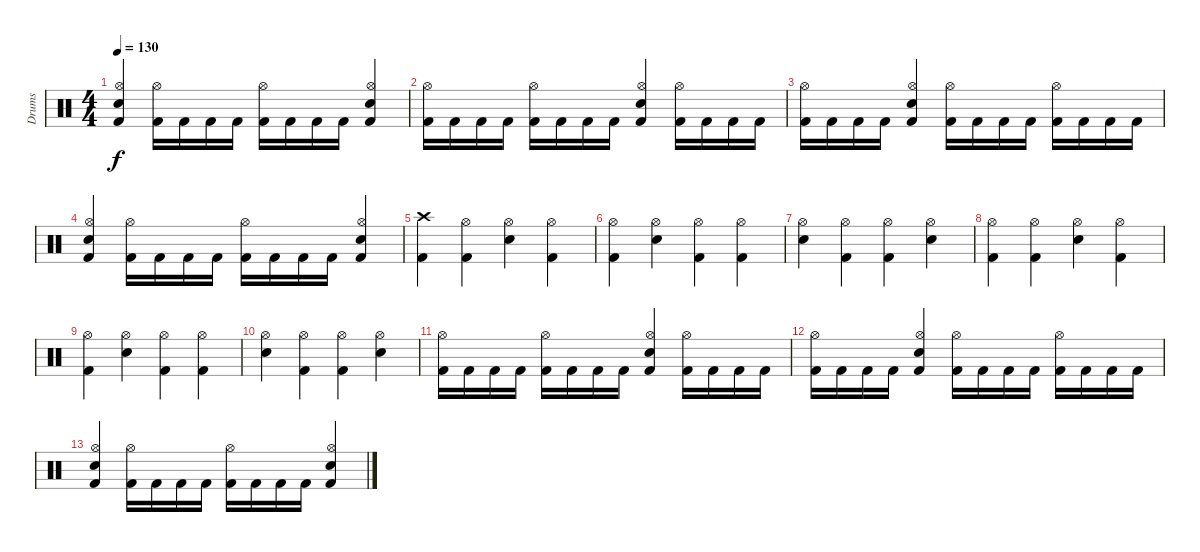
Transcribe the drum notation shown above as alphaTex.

\track ("Drums" "Drums") {instrument percussion}
\staff {score}
\articulation defaults
\ts (4 4)
\tempo 130
\clef neutral
\ks c
("Kick (hit) 2" "Hi-Hat (open)" "Snare (hit) 2").4{dy f} ("Hi-Hat (open)" "Kick (hit) 2").16 "Kick (hit) 2".16 "Kick (hit) 2".16 "Kick (hit) 2".16 ("Hi-Hat (open)" "Kick (hit) 2").16 "Kick (hit) 2".16 "Kick (hit) 2".16 "Kick (hit) 2".16 ("Hi-Hat (open)" "Kick (hit) 2" "Snare (hit) 2").4 |
("Hi-Hat (open)" "Kick (hit) 2").16 "Kick (hit) 2".16 "Kick (hit) 2".16 "Kick (hit) 2".16 ("Hi-Hat (open)" "Kick (hit) 2").16 "Kick (hit) 2".16 "Kick (hit) 2".16 "Kick (hit) 2".16 ("Hi-Hat (open)" "Kick (hit) 2" "Snare (hit) 2").4 ("Hi-Hat (open)" "Kick (hit) 2").16 "Kick (hit) 2".16 "Kick (hit) 2".16 "Kick (hit) 2".16 |
("Hi-Hat (open)" "Kick (hit) 2").16 "Kick (hit) 2".16 "Kick (hit) 2".16 "Kick (hit) 2".16 ("Hi-Hat (open)" "Kick (hit) 2" "Snare (hit) 2").4 ("Hi-Hat (open)" "Kick (hit) 2").16 "Kick (hit) 2".16 "Kick (hit) 2".16 "Kick (hit) 2".16 ("Hi-Hat (open)" "Kick (hit) 2").16 "Kick (hit) 2".16 "Kick (hit) 2".16 "Kick (hit) 2".16 |
("Kick (hit) 2" "Hi-Hat (open)" "Snare (hit) 2").4 ("Hi-Hat (open)" "Kick (hit) 2").16 "Kick (hit) 2".16 "Kick (hit) 2".16 "Kick (hit) 2".16 ("Hi-Hat (open)" "Kick (hit) 2").16 "Kick (hit) 2".16 "Kick (hit) 2".16 "Kick (hit) 2".16 ("Hi-Hat (open)" "Kick (hit) 2" "Snare (hit) 2").4 |
("Crash high (hit)" "Kick (hit) 2").4 ("Hi-Hat (open)" "Kick (hit) 2").4 ("Hi-Hat (open)" "Snare (hit) 2").4 ("Hi-Hat (open)" "Kick (hit) 2").4 |
("Hi-Hat (open)" "Kick (hit) 2").4 ("Hi-Hat (open)" "Snare (hit) 2").4 ("Hi-Hat (open)" "Kick (hit) 2").4 ("Hi-Hat (open)" "Kick (hit) 2").4 |
("Hi-Hat (open)" "Snare (hit) 2").4 ("Hi-Hat (open)" "Kick (hit) 2").4 ("Hi-Hat (open)" "Kick (hit) 2").4 ("Hi-Hat (open)" "Snare (hit) 2").4 |
("Hi-Hat (open)" "Kick (hit) 2").4 ("Hi-Hat (open)" "Kick (hit) 2").4 ("Hi-Hat (open)" "Snare (hit) 2").4 ("Hi-Hat (open)" "Kick (hit) 2").4 |
("Hi-Hat (open)" "Kick (hit) 2").4 ("Hi-Hat (open)" "Snare (hit) 2").4 ("Hi-Hat (open)" "Kick (hit) 2").4 ("Hi-Hat (open)" "Kick (hit) 2").4 |
("Hi-Hat (open)" "Snare (hit) 2").4 ("Hi-Hat (open)" "Kick (hit) 2").4 ("Hi-Hat (open)" "Kick (hit) 2").4 ("Hi-Hat (open)" "Snare (hit) 2").4 |
("Hi-Hat (open)" "Kick (hit) 2").16 "Kick (hit) 2".16 "Kick (hit) 2".16 "Kick (hit) 2".16 ("Hi-Hat (open)" "Kick (hit) 2").16 "Kick (hit) 2".16 "Kick (hit) 2".16 "Kick (hit) 2".16 ("Hi-Hat (open)" "Kick (hit) 2" "Snare (hit) 2").4 ("Hi-Hat (open)" "Kick (hit) 2").16 "Kick (hit) 2".16 "Kick (hit) 2".16 "Kick (hit) 2".16 |
("Hi-Hat (open)" "Kick (hit) 2").16 "Kick (hit) 2".16 "Kick (hit) 2".16 "Kick (hit) 2".16 ("Hi-Hat (open)" "Kick (hit) 2" "Snare (hit) 2").4 ("Hi-Hat (open)" "Kick (hit) 2").16 "Kick (hit) 2".16 "Kick (hit) 2".16 "Kick (hit) 2".16 ("Hi-Hat (open)" "Kick (hit) 2").16 "Kick (hit) 2".16 "Kick (hit) 2".16 "Kick (hit) 2".16 |
("Kick (hit) 2" "Hi-Hat (open)" "Snare (hit) 2").4 ("Hi-Hat (open)" "Kick (hit) 2").16 "Kick (hit) 2".16 "Kick (hit) 2".16 "Kick (hit) 2".16 ("Hi-Hat (open)" "Kick (hit) 2").16 "Kick (hit) 2".16 "Kick (hit) 2".16 "Kick (hit) 2".16 ("Hi-Hat (open)" "Kick (hit) 2" "Snare (hit) 2").4
